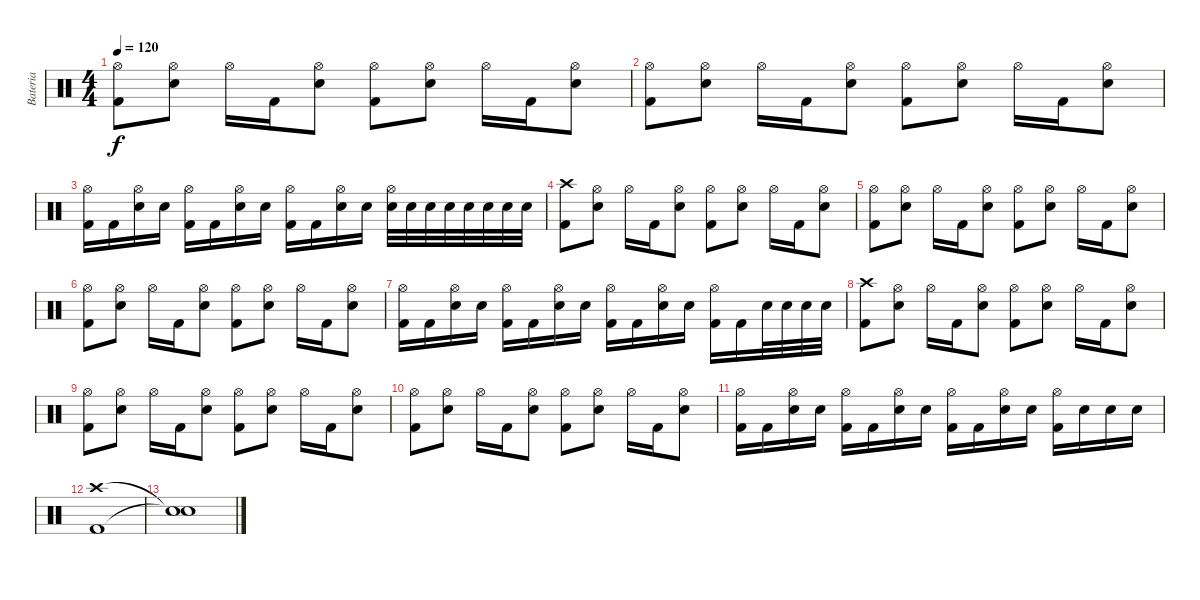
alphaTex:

\track ("Bateria" "Bateria") {instrument percussion}
\staff {score}
\articulation defaults
\ts (4 4)
\tempo 120
\clef neutral
\ks c
("Hi-Hat (open)" "Kick (hit) 2").8{dy f} ("Hi-Hat (open)" "Electric Snare (hit)").8 "Hi-Hat (open)".16 "Kick (hit) 2".16 ("Hi-Hat (open)" "Electric Snare (hit)").8 ("Hi-Hat (open)" "Kick (hit) 2").8 ("Hi-Hat (open)" "Electric Snare (hit)").8 "Hi-Hat (open)".16 "Kick (hit) 2".16 ("Hi-Hat (open)" "Electric Snare (hit)").8 |
("Hi-Hat (open)" "Kick (hit) 2").8 ("Hi-Hat (open)" "Electric Snare (hit)").8 "Hi-Hat (open)".16 "Kick (hit) 2".16 ("Hi-Hat (open)" "Electric Snare (hit)").8 ("Hi-Hat (open)" "Kick (hit) 2").8 ("Hi-Hat (open)" "Electric Snare (hit)").8 "Hi-Hat (open)".16 "Kick (hit) 2".16 ("Hi-Hat (open)" "Electric Snare (hit)").8 |
("Hi-Hat (open)" "Kick (hit) 2").16 "Kick (hit) 2".16 ("Hi-Hat (open)" "Electric Snare (hit)").16 "Electric Snare (hit)".16 ("Hi-Hat (open)" "Kick (hit) 2").16 "Kick (hit) 2".16 ("Hi-Hat (open)" "Electric Snare (hit)").16 "Electric Snare (hit)".16 ("Hi-Hat (open)" "Kick (hit) 2").16 "Kick (hit) 2".16 ("Hi-Hat (open)" "Electric Snare (hit)").16 "Electric Snare (hit)".16 ("Hi-Hat (open)" "Electric Snare (hit)").32 "Electric Snare (hit)".32 "Electric Snare (hit)".32 "Electric Snare (hit)".32 "Electric Snare (hit)".32 "Electric Snare (hit)".32 "Electric Snare (hit)".32 "Electric Snare (hit)".32 |
("Crash high (hit)" "Kick (hit) 2").8 ("Hi-Hat (open)" "Electric Snare (hit)").8 "Hi-Hat (open)".16 "Kick (hit) 2".16 ("Hi-Hat (open)" "Electric Snare (hit)").8 ("Hi-Hat (open)" "Kick (hit) 2").8 ("Hi-Hat (open)" "Electric Snare (hit)").8 "Hi-Hat (open)".16 "Kick (hit) 2".16 ("Hi-Hat (open)" "Electric Snare (hit)").8 |
("Hi-Hat (open)" "Kick (hit) 2").8 ("Hi-Hat (open)" "Electric Snare (hit)").8 "Hi-Hat (open)".16 "Kick (hit) 2".16 ("Hi-Hat (open)" "Electric Snare (hit)").8 ("Hi-Hat (open)" "Kick (hit) 2").8 ("Hi-Hat (open)" "Electric Snare (hit)").8 "Hi-Hat (open)".16 "Kick (hit) 2".16 ("Hi-Hat (open)" "Electric Snare (hit)").8 |
("Hi-Hat (open)" "Kick (hit) 2").8 ("Hi-Hat (open)" "Electric Snare (hit)").8 "Hi-Hat (open)".16 "Kick (hit) 2".16 ("Hi-Hat (open)" "Electric Snare (hit)").8 ("Hi-Hat (open)" "Kick (hit) 2").8 ("Hi-Hat (open)" "Electric Snare (hit)").8 "Hi-Hat (open)".16 "Kick (hit) 2".16 ("Hi-Hat (open)" "Electric Snare (hit)").8 |
("Hi-Hat (open)" "Kick (hit) 2").16 "Kick (hit) 2".16 ("Hi-Hat (open)" "Electric Snare (hit)").16 "Electric Snare (hit)".16 ("Hi-Hat (open)" "Kick (hit) 2").16 "Kick (hit) 2".16 ("Hi-Hat (open)" "Electric Snare (hit)").16 "Electric Snare (hit)".16 ("Hi-Hat (open)" "Kick (hit) 2").16 "Kick (hit) 2".16 ("Hi-Hat (open)" "Electric Snare (hit)").16 "Electric Snare (hit)".16 ("Hi-Hat (open)" "Kick (hit) 2").16 "Kick (hit) 2".16 "Electric Snare (hit)".32 "Electric Snare (hit)".32 "Electric Snare (hit)".32 "Electric Snare (hit)".32 |
("Crash high (hit)" "Kick (hit) 2").8 ("Hi-Hat (open)" "Electric Snare (hit)").8 "Hi-Hat (open)".16 "Kick (hit) 2".16 ("Hi-Hat (open)" "Electric Snare (hit)").8 ("Hi-Hat (open)" "Kick (hit) 2").8 ("Hi-Hat (open)" "Electric Snare (hit)").8 "Hi-Hat (open)".16 "Kick (hit) 2".16 ("Hi-Hat (open)" "Electric Snare (hit)").8 |
("Hi-Hat (open)" "Kick (hit) 2").8 ("Hi-Hat (open)" "Electric Snare (hit)").8 "Hi-Hat (open)".16 "Kick (hit) 2".16 ("Hi-Hat (open)" "Electric Snare (hit)").8 ("Hi-Hat (open)" "Kick (hit) 2").8 ("Hi-Hat (open)" "Electric Snare (hit)").8 "Hi-Hat (open)".16 "Kick (hit) 2".16 ("Hi-Hat (open)" "Electric Snare (hit)").8 |
("Hi-Hat (open)" "Kick (hit) 2").8 ("Hi-Hat (open)" "Electric Snare (hit)").8 "Hi-Hat (open)".16 "Kick (hit) 2".16 ("Hi-Hat (open)" "Electric Snare (hit)").8 ("Hi-Hat (open)" "Kick (hit) 2").8 ("Hi-Hat (open)" "Electric Snare (hit)").8 "Hi-Hat (open)".16 "Kick (hit) 2".16 ("Hi-Hat (open)" "Electric Snare (hit)").8 |
("Hi-Hat (open)" "Kick (hit) 2").16 "Kick (hit) 2".16 ("Hi-Hat (open)" "Electric Snare (hit)").16 "Electric Snare (hit)".16 ("Hi-Hat (open)" "Kick (hit) 2").16 "Kick (hit) 2".16 ("Hi-Hat (open)" "Electric Snare (hit)").16 "Electric Snare (hit)".16 ("Hi-Hat (open)" "Kick (hit) 2").16 "Kick (hit) 2".16 ("Hi-Hat (open)" "Electric Snare (hit)").16 "Electric Snare (hit)".16 ("Hi-Hat (open)" "Kick (hit) 2").16 "Electric Snare (hit)".16 "Electric Snare (hit)".16 "Electric Snare (hit)".16 |
("Crash high (hit)" "Kick (hit) 2").1 |
("Snare (hit)"{t} "Snare (hit)"{t}).1
